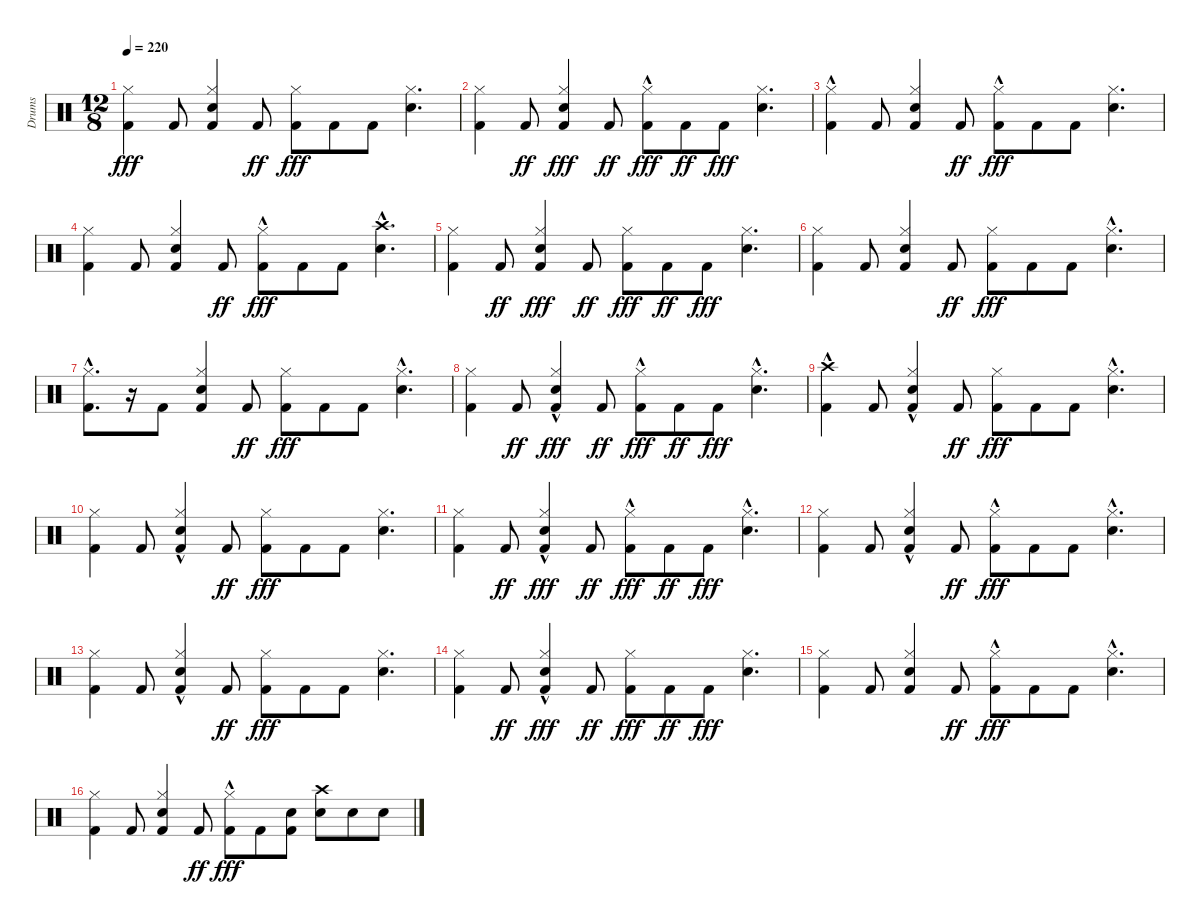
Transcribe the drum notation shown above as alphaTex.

\track ("Drums" "Drums") {instrument percussion}
\staff {score}
\articulation defaults
\ts (12 8)
\tempo 220
\clef neutral
\ks c
("Kick (hit) 2" "Hi-Hat (closed)").4{dy fff} "Kick (hit) 2".8 ("Kick (hit) 2" "Snare (hit) 2" "Hi-Hat (closed)").4 "Kick (hit) 2".8{dy ff} ("Kick (hit) 2" "Hi-Hat (closed)").8{dy fff} "Kick (hit) 2".8 "Kick (hit) 2".8 ("Snare (hit) 2" "Hi-Hat (closed)").4{d} |
("Kick (hit) 2" "Hi-Hat (closed)").4 "Kick (hit) 2".8{dy ff} ("Kick (hit) 2" "Snare (hit) 2" "Hi-Hat (closed)").4{dy fff} "Kick (hit) 2".8{dy ff} ("Kick (hit) 2" "Hi-Hat (closed)"{hac}).8{dy fff} "Kick (hit) 2".8{dy ff} "Kick (hit) 2".8{dy fff} ("Snare (hit) 2" "Hi-Hat (closed)").4{d} |
("Kick (hit) 2" "Hi-Hat (closed)"{hac}).4 "Kick (hit) 2".8 ("Kick (hit) 2" "Snare (hit) 2" "Hi-Hat (closed)").4 "Kick (hit) 2".8{dy ff} ("Kick (hit) 2" "Hi-Hat (closed)"{hac}).8{dy fff} "Kick (hit) 2".8 "Kick (hit) 2".8 ("Snare (hit) 2" "Hi-Hat (closed)").4{d} |
("Kick (hit) 2" "Hi-Hat (closed)").4 "Kick (hit) 2".8 ("Kick (hit) 2" "Snare (hit) 2" "Hi-Hat (closed)").4 "Kick (hit) 2".8{dy ff} ("Kick (hit) 2" "Hi-Hat (closed)"{hac}).8{dy fff} "Kick (hit) 2".8 "Kick (hit) 2".8 ("Snare (hit) 2" "Crash high (hit)"{hac}).4{d} |
("Kick (hit) 2" "Hi-Hat (closed)").4 "Kick (hit) 2".8{dy ff} ("Kick (hit) 2" "Snare (hit) 2" "Hi-Hat (closed)").4{dy fff} "Kick (hit) 2".8{dy ff} ("Kick (hit) 2" "Hi-Hat (closed)").8{dy fff} "Kick (hit) 2".8{dy ff} "Kick (hit) 2".8{dy fff} ("Snare (hit) 2" "Hi-Hat (closed)").4{d} |
("Kick (hit) 2" "Hi-Hat (closed)").4 "Kick (hit) 2".8 ("Kick (hit) 2" "Snare (hit) 2" "Hi-Hat (closed)").4 "Kick (hit) 2".8{dy ff} ("Kick (hit) 2" "Hi-Hat (closed)").8{dy fff} "Kick (hit) 2".8 "Kick (hit) 2".8 ("Snare (hit) 2" "Hi-Hat (closed)"{hac}).4{d} |
("Kick (hit) 2" "Hi-Hat (closed)"{hac}).8{d} r.16 "Kick (hit) 2".8 ("Kick (hit) 2" "Snare (hit) 2" "Hi-Hat (closed)").4 "Kick (hit) 2".8{dy ff} ("Kick (hit) 2" "Hi-Hat (closed)").8{dy fff} "Kick (hit) 2".8 "Kick (hit) 2".8 ("Snare (hit) 2" "Hi-Hat (closed)"{hac}).4{d} |
("Kick (hit) 2" "Hi-Hat (closed)").4 "Kick (hit) 2".8{dy ff} ("Kick (hit) 2" "Snare (hit) 2" "Hi-Hat (closed)"{hac}).4{dy fff} "Kick (hit) 2".8{dy ff} ("Kick (hit) 2" "Hi-Hat (closed)"{hac}).8{dy fff} "Kick (hit) 2".8{dy ff} "Kick (hit) 2".8{dy fff} ("Snare (hit) 2" "Hi-Hat (closed)"{hac}).4{d} |
("Kick (hit) 2" "Crash high (hit)"{hac}).4 "Kick (hit) 2".8 ("Kick (hit) 2" "Snare (hit) 2" "Hi-Hat (closed)"{hac}).4 "Kick (hit) 2".8{dy ff} ("Kick (hit) 2" "Hi-Hat (closed)").8{dy fff} "Kick (hit) 2".8 "Kick (hit) 2".8 ("Snare (hit) 2" "Hi-Hat (closed)"{hac}).4{d} |
("Kick (hit) 2" "Hi-Hat (closed)").4 "Kick (hit) 2".8 ("Kick (hit) 2" "Snare (hit) 2" "Hi-Hat (closed)"{hac}).4 "Kick (hit) 2".8{dy ff} ("Kick (hit) 2" "Hi-Hat (closed)").8{dy fff} "Kick (hit) 2".8 "Kick (hit) 2".8 ("Snare (hit) 2" "Hi-Hat (closed)").4{d} |
("Kick (hit) 2" "Hi-Hat (closed)").4 "Kick (hit) 2".8{dy ff} ("Kick (hit) 2" "Snare (hit) 2" "Hi-Hat (closed)"{hac}).4{dy fff} "Kick (hit) 2".8{dy ff} ("Kick (hit) 2" "Hi-Hat (closed)"{hac}).8{dy fff} "Kick (hit) 2".8{dy ff} "Kick (hit) 2".8{dy fff} ("Snare (hit) 2" "Hi-Hat (closed)"{hac}).4{d} |
("Kick (hit) 2" "Hi-Hat (closed)").4 "Kick (hit) 2".8 ("Kick (hit) 2" "Snare (hit) 2" "Hi-Hat (closed)"{hac}).4 "Kick (hit) 2".8{dy ff} ("Kick (hit) 2" "Hi-Hat (closed)"{hac}).8{dy fff} "Kick (hit) 2".8 "Kick (hit) 2".8 ("Snare (hit) 2" "Hi-Hat (closed)"{hac}).4{d} |
("Kick (hit) 2" "Hi-Hat (closed)").4 "Kick (hit) 2".8 ("Kick (hit) 2" "Snare (hit) 2" "Hi-Hat (closed)"{hac}).4 "Kick (hit) 2".8{dy ff} ("Kick (hit) 2" "Hi-Hat (closed)").8{dy fff} "Kick (hit) 2".8 "Kick (hit) 2".8 ("Snare (hit) 2" "Hi-Hat (closed)").4{d} |
("Kick (hit) 2" "Hi-Hat (closed)").4 "Kick (hit) 2".8{dy ff} ("Kick (hit) 2" "Snare (hit) 2" "Hi-Hat (closed)"{hac}).4{dy fff} "Kick (hit) 2".8{dy ff} ("Kick (hit) 2" "Hi-Hat (closed)").8{dy fff} "Kick (hit) 2".8{dy ff} "Kick (hit) 2".8{dy fff} ("Snare (hit) 2" "Hi-Hat (closed)").4{d} |
("Kick (hit) 2" "Hi-Hat (closed)").4 "Kick (hit) 2".8 ("Kick (hit) 2" "Snare (hit) 2" "Hi-Hat (closed)").4 "Kick (hit) 2".8{dy ff} ("Kick (hit) 2" "Hi-Hat (closed)"{hac}).8{dy fff} "Kick (hit) 2".8 "Kick (hit) 2".8 ("Snare (hit) 2" "Hi-Hat (closed)"{hac}).4{d} |
("Kick (hit) 2" "Hi-Hat (closed)").4 "Kick (hit) 2".8 ("Kick (hit) 2" "Snare (hit) 2" "Hi-Hat (closed)").4 "Kick (hit) 2".8{dy ff} ("Kick (hit) 2" "Hi-Hat (closed)"{hac}).8{dy fff} "Kick (hit) 2".8 ("Kick (hit) 2" "Snare (hit) 2").8 ("Snare (hit) 2" "Crash high (hit)").8 "Snare (hit) 2".8 "Snare (hit) 2".8
